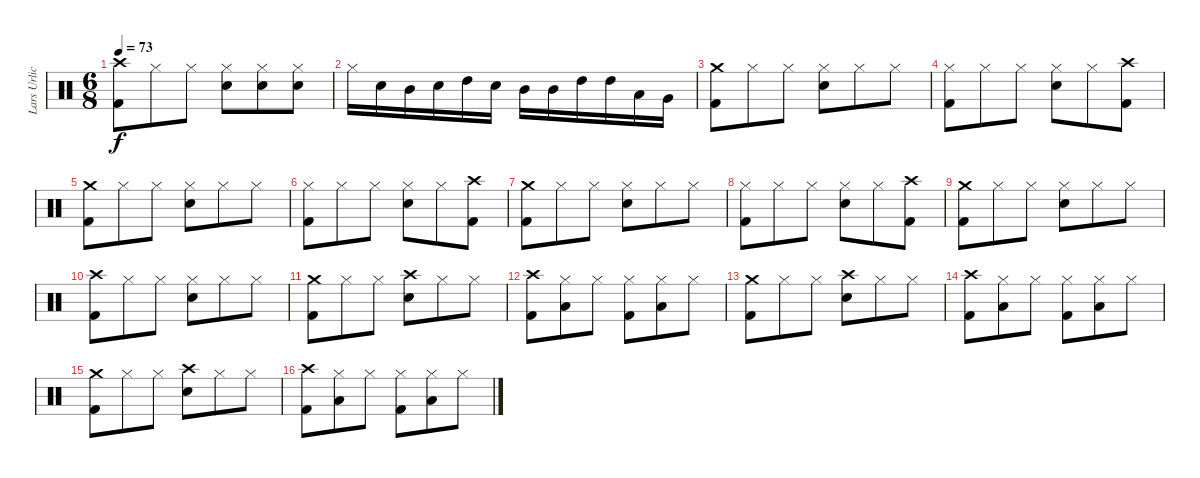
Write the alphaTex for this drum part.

\track ("Lars Urlich" "Lars Urlic") {instrument percussion}
\staff {score}
\articulation defaults
\ts (6 8)
\tempo 73
\clef neutral
\ks c
("Crash high (hit)" "Kick (hit) 2").8{dy f} "Hi-Hat (closed)".8 "Hi-Hat (closed)".8 ("Hi-Hat (closed)" "Snare (hit) 2").8 ("Hi-Hat (closed)" "Snare (hit) 2").8 ("Hi-Hat (closed)" "Snare (hit) 2").8 |
"Hi-Hat (closed)".16 "Snare (hit) 2".16 "Mid Tom (hit)".16 "Snare (hit) 2".16 "High Tom (hit)".16 "Snare (hit) 2".16 "Mid Tom (hit)".16 "Mid Tom (hit)".16 "High Tom (hit)".16 "High Tom (hit)".16 "Low Floor Tom (hit)".16 "Very Low Tom (hit)".16 |
("Crash medium (hit)" "Kick (hit) 2").8 "Hi-Hat (closed)".8 "Hi-Hat (closed)".8 ("Hi-Hat (closed)" "Snare (hit) 2").8 "Hi-Hat (closed)".8 "Hi-Hat (closed)".8 |
("Hi-Hat (closed)" "Kick (hit) 2").8 "Hi-Hat (closed)".8 "Hi-Hat (closed)".8 ("Hi-Hat (closed)" "Snare (hit) 2").8 "Hi-Hat (closed)".8 ("Crash high (hit)" "Kick (hit) 2").8 |
("Crash medium (hit)" "Kick (hit) 2").8 "Hi-Hat (closed)".8 "Hi-Hat (closed)".8 ("Hi-Hat (closed)" "Snare (hit) 2").8 "Hi-Hat (closed)".8 "Hi-Hat (closed)".8 |
("Hi-Hat (closed)" "Kick (hit) 2").8 "Hi-Hat (closed)".8 "Hi-Hat (closed)".8 ("Hi-Hat (closed)" "Snare (hit) 2").8 "Hi-Hat (closed)".8 ("Crash high (hit)" "Kick (hit) 2").8 |
("Crash medium (hit)" "Kick (hit) 2").8 "Hi-Hat (closed)".8 "Hi-Hat (closed)".8 ("Hi-Hat (closed)" "Snare (hit) 2").8 "Hi-Hat (closed)".8 "Hi-Hat (closed)".8 |
("Hi-Hat (closed)" "Kick (hit) 2").8 "Hi-Hat (closed)".8 "Hi-Hat (closed)".8 ("Hi-Hat (closed)" "Snare (hit) 2").8 "Hi-Hat (closed)".8 ("Crash high (hit)" "Kick (hit) 2").8 |
("Crash medium (hit)" "Kick (hit) 2").8 "Hi-Hat (closed)".8 "Hi-Hat (closed)".8 ("Hi-Hat (closed)" "Snare (hit) 2").8 "Hi-Hat (closed)".8 "Hi-Hat (closed)".8 |
("Crash high (hit)" "Kick (hit) 2").8 "Hi-Hat (closed)".8 "Hi-Hat (closed)".8 ("Hi-Hat (closed)" "Snare (hit) 2").8 "Hi-Hat (closed)".8 "Hi-Hat (closed)".8 |
("Crash medium (hit)" "Kick (hit) 2").8 "Hi-Hat (closed)".8 "Hi-Hat (closed)".8 ("Crash high (hit)" "Snare (hit) 2").8 "Hi-Hat (closed)".8 "Hi-Hat (closed)".8 |
("Crash high (hit)" "Kick (hit) 2").8 ("Hi-Hat (closed)" "Low Tom (hit)").8 "Hi-Hat (closed)".8 ("Hi-Hat (closed)" "Kick (hit) 2").8 ("Hi-Hat (closed)" "Low Tom (hit)").8 "Hi-Hat (closed)".8 |
("Crash medium (hit)" "Kick (hit) 2").8 "Hi-Hat (closed)".8 "Hi-Hat (closed)".8 ("Crash high (hit)" "Snare (hit) 2").8 "Hi-Hat (closed)".8 "Hi-Hat (closed)".8 |
("Crash high (hit)" "Kick (hit) 2").8 ("Hi-Hat (closed)" "Low Tom (hit)").8 "Hi-Hat (closed)".8 ("Hi-Hat (closed)" "Kick (hit) 2").8 ("Hi-Hat (closed)" "Low Tom (hit)").8 "Hi-Hat (closed)".8 |
("Crash medium (hit)" "Kick (hit) 2").8 "Hi-Hat (closed)".8 "Hi-Hat (closed)".8 ("Crash high (hit)" "Snare (hit) 2").8 "Hi-Hat (closed)".8 "Hi-Hat (closed)".8 |
("Crash high (hit)" "Kick (hit) 2").8 ("Hi-Hat (closed)" "Low Tom (hit)").8 "Hi-Hat (closed)".8 ("Hi-Hat (closed)" "Kick (hit) 2").8 ("Hi-Hat (closed)" "Low Tom (hit)").8 "Hi-Hat (closed)".8
